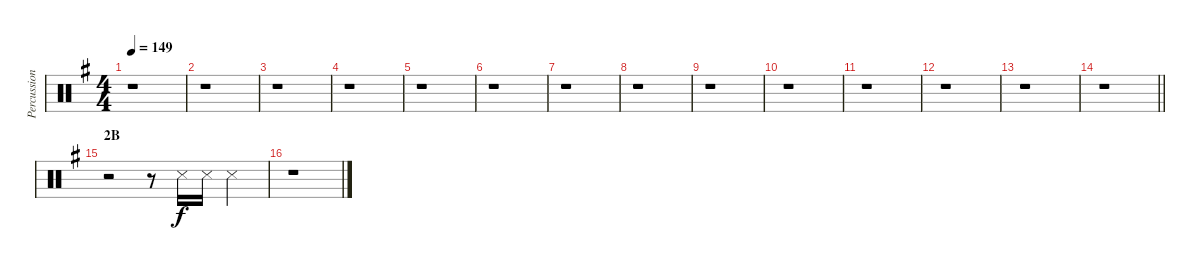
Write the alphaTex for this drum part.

\track ("Percussions" "Percussion") {instrument percussion}
\staff {score}
\articulation defaults
\ts (4 4)
\tempo 149
\clef neutral
\ks g
r.1{dy f} |
r.1 |
r.1 |
r.1 |
r.1 |
r.1 |
r.1 |
r.1 |
r.1 |
r.1 |
r.1 |
r.1 |
r.1 |
\barLineRight lightlight
r.1 |
\section ("" "2B")
r.2 r.8 "Metronome (hit)".16 "Metronome (hit)".16 "Metronome (hit)".4 |
r.1
